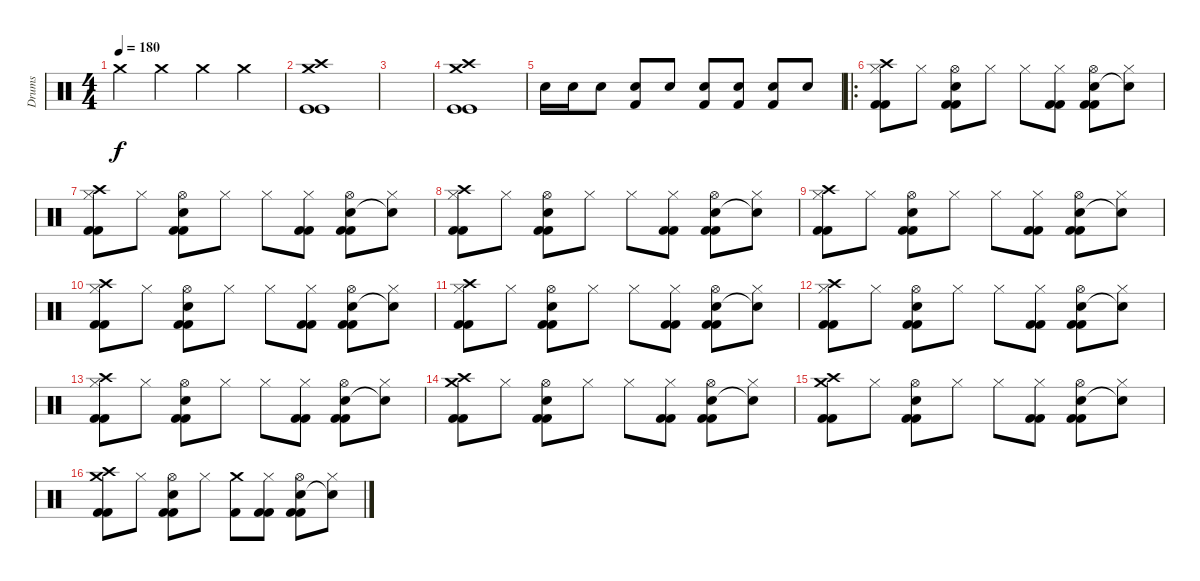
\track ("Drums" "Drums") {instrument percussion}
\staff {score}
\articulation defaults
\ts (4 4)
\tempo 180
\clef neutral
\ks c "Crash medium (hit)".4{dy f} "Crash medium (hit)".4 "Crash medium (hit)".4 "Crash medium (hit)".4
|
("Crash medium (hit)" "Kick (hit)" "Kick (hit)" "Crash high (hit)").1 |
|
("Crash medium (hit)" "Kick (hit)" "Kick (hit)" "Crash high (hit)").1 |
"Electric Snare (hit)".16 "Electric Snare (hit)".16 "Electric Snare (hit)".8 ("Electric Snare (hit)" "Kick (hit) 2").8 "Electric Snare (hit)".8 ("Electric Snare (hit)" "Kick (hit) 2").8 ("Electric Snare (hit)" "Kick (hit) 2").8 ("Electric Snare (hit)" "Kick (hit) 2").8 "Electric Snare (hit)".8 |
\ro
("Hi-Hat (closed)" "Crash high (hit)" "Kick (hit) 2" "Kick (hit) 2").8 "Hi-Hat (closed)".8 ("Hi-Hat (open)" "Electric Snare (hit)" "Kick (hit) 2" "Kick (hit) 2").8 "Hi-Hat (closed)".8 "Hi-Hat (closed)".8 ("Hi-Hat (closed)" "Kick (hit) 2" "Kick (hit) 2").8 ("Hi-Hat (open)" "Electric Snare (hit)" "Kick (hit) 2" "Kick (hit) 2").8 ("Hi-Hat (closed)" "Snare (hit)"{t}).8 |
("Hi-Hat (closed)" "Crash high (hit)" "Kick (hit) 2" "Kick (hit) 2").8 "Hi-Hat (closed)".8 ("Hi-Hat (open)" "Electric Snare (hit)" "Kick (hit) 2" "Kick (hit) 2").8 "Hi-Hat (closed)".8 "Hi-Hat (closed)".8 ("Hi-Hat (closed)" "Kick (hit) 2" "Kick (hit) 2").8 ("Hi-Hat (open)" "Electric Snare (hit)" "Kick (hit) 2" "Kick (hit) 2").8 ("Hi-Hat (closed)" "Snare (hit)"{t}).8 |
("Hi-Hat (closed)" "Crash high (hit)" "Kick (hit) 2" "Kick (hit) 2").8 "Hi-Hat (closed)".8 ("Hi-Hat (open)" "Electric Snare (hit)" "Kick (hit) 2" "Kick (hit) 2").8 "Hi-Hat (closed)".8 "Hi-Hat (closed)".8 ("Hi-Hat (closed)" "Kick (hit) 2" "Kick (hit) 2").8 ("Hi-Hat (open)" "Electric Snare (hit)" "Kick (hit) 2" "Kick (hit) 2").8 ("Hi-Hat (closed)" "Snare (hit)"{t}).8 |
("Hi-Hat (closed)" "Crash high (hit)" "Kick (hit) 2" "Kick (hit) 2").8 "Hi-Hat (closed)".8 ("Hi-Hat (open)" "Electric Snare (hit)" "Kick (hit) 2" "Kick (hit) 2").8 "Hi-Hat (closed)".8 "Hi-Hat (closed)".8 ("Hi-Hat (closed)" "Kick (hit) 2" "Kick (hit) 2").8 ("Hi-Hat (open)" "Electric Snare (hit)" "Kick (hit) 2" "Kick (hit) 2").8 ("Hi-Hat (closed)" "Snare (hit)"{t}).8 |
("Hi-Hat (closed)" "Crash high (hit)" "Kick (hit) 2" "Kick (hit) 2").8 "Hi-Hat (closed)".8 ("Hi-Hat (open)" "Electric Snare (hit)" "Kick (hit) 2" "Kick (hit) 2").8 "Hi-Hat (closed)".8 "Hi-Hat (closed)".8 ("Hi-Hat (closed)" "Kick (hit) 2" "Kick (hit) 2").8 ("Hi-Hat (open)" "Electric Snare (hit)" "Kick (hit) 2" "Kick (hit) 2").8 ("Hi-Hat (closed)" "Snare (hit)"{t}).8 |
("Hi-Hat (closed)" "Crash high (hit)" "Kick (hit) 2" "Kick (hit) 2").8 "Hi-Hat (closed)".8 ("Hi-Hat (open)" "Electric Snare (hit)" "Kick (hit) 2" "Kick (hit) 2").8 "Hi-Hat (closed)".8 "Hi-Hat (closed)".8 ("Hi-Hat (closed)" "Kick (hit) 2" "Kick (hit) 2").8 ("Hi-Hat (open)" "Electric Snare (hit)" "Kick (hit) 2" "Kick (hit) 2").8 ("Hi-Hat (closed)" "Snare (hit)"{t}).8 |
("Hi-Hat (closed)" "Crash high (hit)" "Kick (hit) 2" "Kick (hit) 2").8 "Hi-Hat (closed)".8 ("Hi-Hat (open)" "Electric Snare (hit)" "Kick (hit) 2" "Kick (hit) 2").8 "Hi-Hat (closed)".8 "Hi-Hat (closed)".8 ("Hi-Hat (closed)" "Kick (hit) 2" "Kick (hit) 2").8 ("Hi-Hat (open)" "Electric Snare (hit)" "Kick (hit) 2" "Kick (hit) 2").8 ("Hi-Hat (closed)" "Snare (hit)"{t}).8 |
("Hi-Hat (closed)" "Crash high (hit)" "Kick (hit) 2" "Kick (hit) 2").8 "Hi-Hat (closed)".8 ("Hi-Hat (open)" "Electric Snare (hit)" "Kick (hit) 2" "Kick (hit) 2").8 "Hi-Hat (closed)".8 "Hi-Hat (closed)".8 ("Hi-Hat (closed)" "Kick (hit) 2" "Kick (hit) 2").8 ("Hi-Hat (open)" "Electric Snare (hit)" "Kick (hit) 2" "Kick (hit) 2").8 ("Hi-Hat (closed)" "Snare (hit)"{t}).8 |
("Crash medium (hit)" "Crash high (hit)" "Kick (hit) 2" "Kick (hit) 2").8 "Hi-Hat (closed)".8 ("Hi-Hat (open)" "Electric Snare (hit)" "Kick (hit) 2" "Kick (hit) 2").8 "Hi-Hat (closed)".8 "Hi-Hat (closed)".8 ("Hi-Hat (closed)" "Kick (hit) 2" "Kick (hit) 2").8 ("Hi-Hat (open)" "Electric Snare (hit)" "Kick (hit) 2" "Kick (hit) 2").8 ("Hi-Hat (closed)" "Snare (hit)"{t}).8 |
("Crash medium (hit)" "Crash high (hit)" "Kick (hit) 2" "Kick (hit) 2").8 "Hi-Hat (closed)".8 ("Hi-Hat (open)" "Electric Snare (hit)" "Kick (hit) 2" "Kick (hit) 2").8 "Hi-Hat (closed)".8 "Hi-Hat (closed)".8 ("Hi-Hat (closed)" "Kick (hit) 2" "Kick (hit) 2").8 ("Hi-Hat (open)" "Electric Snare (hit)" "Kick (hit) 2" "Kick (hit) 2").8 ("Hi-Hat (closed)" "Snare (hit)"{t}).8 |
("Crash medium (hit)" "Crash high (hit)" "Kick (hit) 2" "Kick (hit) 2").8 "Hi-Hat (closed)".8 ("Hi-Hat (open)" "Electric Snare (hit)" "Kick (hit) 2" "Kick (hit) 2").8 "Hi-Hat (closed)".8 ("Crash medium (hit)" "Kick (hit) 2").8 ("Hi-Hat (closed)" "Kick (hit) 2" "Kick (hit) 2").8 ("Hi-Hat (open)" "Electric Snare (hit)" "Kick (hit) 2" "Kick (hit) 2").8 ("Hi-Hat (closed)" "Snare (hit)"{t}).8
